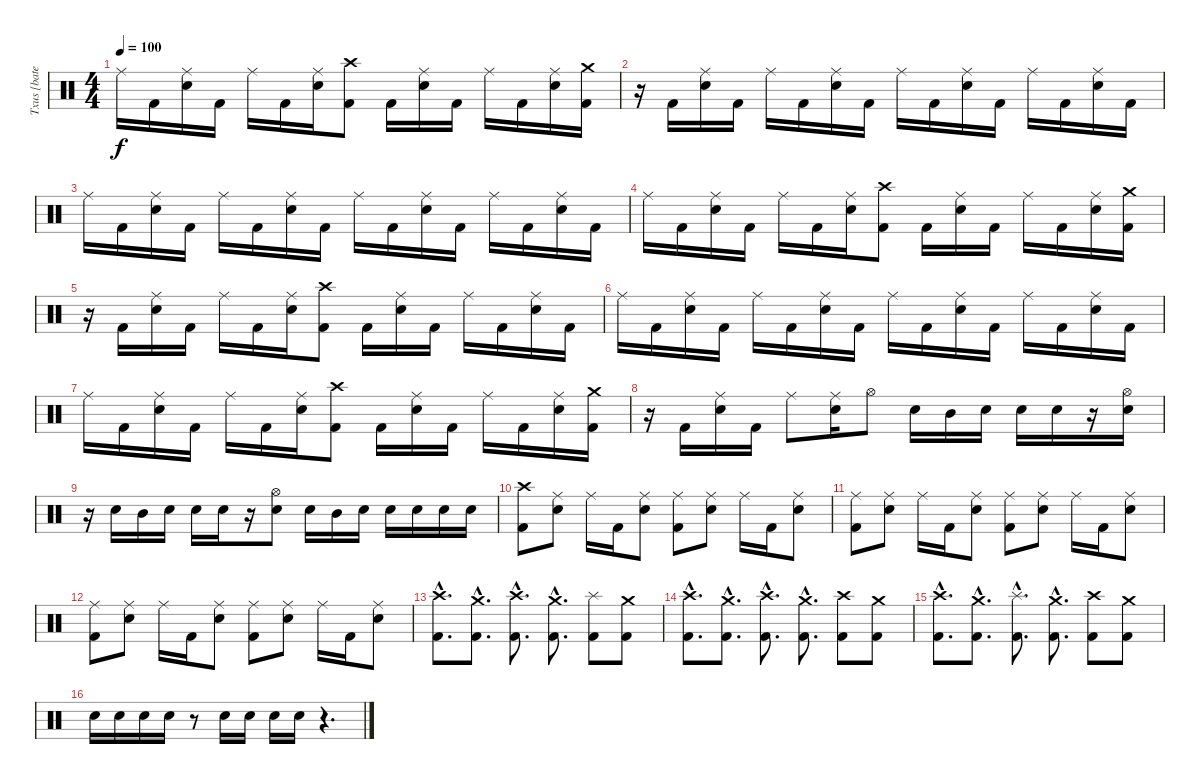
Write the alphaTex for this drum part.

\track ("Txus [bateria]" "Txus [bate") {instrument percussion}
\staff {score}
\articulation defaults
\ts (4 4)
\tempo 100
\clef neutral
\ks c "Ride (middle)".16{dy f} "Kick (hit) 2".16
("Ride (middle)" "Snare (hit) 2").16 "Kick (hit) 2".16 "Ride (middle)".16 "Kick (hit) 2".16 ("Ride (middle)" "Snare (hit) 2").16 ("Crash high (hit)" "Kick (hit) 2").8 "Kick (hit) 2".16 ("Ride (middle)" "Snare (hit) 2").16 "Kick (hit) 2".16 "Ride (middle)".16 "Kick (hit) 2".16 ("Ride (middle)" "Snare (hit) 2").16 ("Crash medium (hit)" "Kick (hit) 2").16 |
r.16 "Kick (hit) 2".16 ("Ride (middle)" "Snare (hit) 2").16 "Kick (hit) 2".16 "Ride (middle)".16 "Kick (hit) 2".16 ("Ride (middle)" "Snare (hit) 2").16 "Kick (hit) 2".16 "Ride (middle)".16 "Kick (hit) 2".16 ("Ride (middle)" "Snare (hit) 2").16 "Kick (hit) 2".16 "Ride (middle)".16 "Kick (hit) 2".16 ("Ride (middle)" "Snare (hit) 2").16 "Kick (hit) 2".16 |
"Ride (middle)".16 "Kick (hit) 2".16 ("Ride (middle)" "Snare (hit) 2").16 "Kick (hit) 2".16 "Ride (middle)".16 "Kick (hit) 2".16 ("Ride (middle)" "Snare (hit) 2").16 "Kick (hit) 2".16 "Ride (middle)".16 "Kick (hit) 2".16 ("Ride (middle)" "Snare (hit) 2").16 "Kick (hit) 2".16 "Ride (middle)".16 "Kick (hit) 2".16 ("Ride (middle)" "Snare (hit) 2").16 "Kick (hit) 2".16 |
"Ride (middle)".16 "Kick (hit) 2".16 ("Ride (middle)" "Snare (hit) 2").16 "Kick (hit) 2".16 "Ride (middle)".16 "Kick (hit) 2".16 ("Ride (middle)" "Snare (hit) 2").16 ("Crash high (hit)" "Kick (hit) 2").8 "Kick (hit) 2".16 ("Ride (middle)" "Snare (hit) 2").16 "Kick (hit) 2".16 "Ride (middle)".16 "Kick (hit) 2".16 ("Ride (middle)" "Snare (hit) 2").16 ("Crash medium (hit)" "Kick (hit) 2").16 |
r.16 "Kick (hit) 2".16 ("Ride (middle)" "Snare (hit) 2").16 "Kick (hit) 2".16 "Ride (middle)".16 "Kick (hit) 2".16 ("Ride (middle)" "Snare (hit) 2").16 ("Crash high (hit)" "Kick (hit) 2").8 "Kick (hit) 2".16 ("Ride (middle)" "Snare (hit) 2").16 "Kick (hit) 2".16 "Ride (middle)".16 "Kick (hit) 2".16 ("Ride (middle)" "Snare (hit) 2").16 "Kick (hit) 2".16 |
"Ride (middle)".16 "Kick (hit) 2".16 ("Ride (middle)" "Snare (hit) 2").16 "Kick (hit) 2".16 "Ride (middle)".16 "Kick (hit) 2".16 ("Ride (middle)" "Snare (hit) 2").16 "Kick (hit) 2".16 "Ride (middle)".16 "Kick (hit) 2".16 ("Ride (middle)" "Snare (hit) 2").16 "Kick (hit) 2".16 "Ride (middle)".16 "Kick (hit) 2".16 ("Ride (middle)" "Snare (hit) 2").16 "Kick (hit) 2".16 |
"Ride (middle)".16 "Kick (hit) 2".16 ("Ride (middle)" "Snare (hit) 2").16 "Kick (hit) 2".16 "Ride (middle)".16 "Kick (hit) 2".16 ("Ride (middle)" "Snare (hit) 2").16 ("Crash high (hit)" "Kick (hit) 2").8 "Kick (hit) 2".16 ("Ride (middle)" "Snare (hit) 2").16 "Kick (hit) 2".16 "Ride (middle)".16 "Kick (hit) 2".16 ("Ride (middle)" "Snare (hit) 2").16 ("Crash medium (hit)" "Kick (hit) 2").16 |
r.16 "Kick (hit) 2".16 ("Ride (middle)" "Snare (hit) 2").16 "Kick (hit) 2".16 "Ride (middle)".8 ("Ride (middle)" "Snare (hit) 2").16 "Hi-Hat (open)".8 "Snare (hit) 2".16 "Mid Tom (hit)".16 "Snare (hit) 2".16 "Snare (hit) 2".16 "Snare (hit) 2".16 r.16 ("Hi-Hat (open)" "Snare (hit) 2").16 |
r.16 "Snare (hit) 2".16 "Mid Tom (hit)".16 "Snare (hit) 2".16 "Snare (hit) 2".16 "Snare (hit) 2".16 r.16 ("Hi-Hat (open)" "Snare (hit) 2").8 "Snare (hit) 2".16 "Mid Tom (hit)".16 "Snare (hit) 2".16 "Snare (hit) 2".16 "Snare (hit) 2".16 "Snare (hit) 2".16 "Snare (hit) 2".16 |
("Crash high (hit)" "Kick (hit) 2").8 ("Ride (middle)" "Snare (hit) 2").8 "Ride (middle)".16 "Kick (hit) 2".16 ("Ride (middle)" "Snare (hit) 2").8 ("Ride (middle)" "Kick (hit) 2").8 ("Ride (middle)" "Snare (hit) 2").8 "Ride (middle)".16 "Kick (hit) 2".16 ("Ride (middle)" "Snare (hit) 2").8 |
("Ride (middle)" "Kick (hit) 2").8 ("Ride (middle)" "Snare (hit) 2").8 "Ride (middle)".16 "Kick (hit) 2".16 ("Ride (middle)" "Snare (hit) 2").8 ("Ride (middle)" "Kick (hit) 2").8 ("Ride (middle)" "Snare (hit) 2").8 "Ride (middle)".16 "Kick (hit) 2".16 ("Ride (middle)" "Snare (hit) 2").8 |
("Ride (middle)" "Kick (hit) 2").8 ("Ride (middle)" "Snare (hit) 2").8 "Ride (middle)".16 "Kick (hit) 2".16 ("Ride (middle)" "Snare (hit) 2").8 ("Ride (middle)" "Kick (hit) 2").8 ("Ride (middle)" "Snare (hit) 2").8 "Ride (middle)".16 "Kick (hit) 2".16 ("Ride (middle)" "Snare (hit) 2").8 |
("Crash high (hit)"{hac} "Kick (hit) 2"{hac}).8{d} ("Crash medium (hit)"{hac} "Kick (hit) 2"{hac}).8{d} ("Crash high (hit)"{hac} "Kick (hit) 2"{hac}).8{d} ("Crash medium (hit)"{hac} "Kick (hit) 2"{hac}).8{d} ("Splash (hit)" "Kick (hit) 2").8 ("Crash medium (hit)" "Kick (hit) 2").8 |
("Crash high (hit)"{hac} "Kick (hit) 2"{hac}).8{d} ("Crash medium (hit)"{hac} "Kick (hit) 2"{hac}).8{d} ("Crash high (hit)"{hac} "Kick (hit) 2"{hac}).8{d} ("Crash medium (hit)"{hac} "Kick (hit) 2"{hac}).8{d} ("Crash high (hit)" "Kick (hit) 2").8 ("Crash medium (hit)" "Kick (hit) 2").8 |
("Crash high (hit)"{hac} "Kick (hit) 2"{hac}).8{d} ("Crash medium (hit)"{hac} "Kick (hit) 2"{hac}).8{d} ("Splash (hit)"{hac} "Kick (hit) 2"{hac}).8{d} ("Crash medium (hit)"{hac} "Kick (hit) 2"{hac}).8{d} ("Crash high (hit)" "Kick (hit) 2").8 ("Crash medium (hit)" "Kick (hit) 2").8 |
"Snare (hit) 2".16 "Snare (hit) 2".16 "Snare (hit) 2".16 "Snare (hit) 2".16 r.8 "Snare (hit) 2".16 "Snare (hit) 2".16 "Snare (hit) 2".16 "Snare (hit) 2".16 r.4{d}
